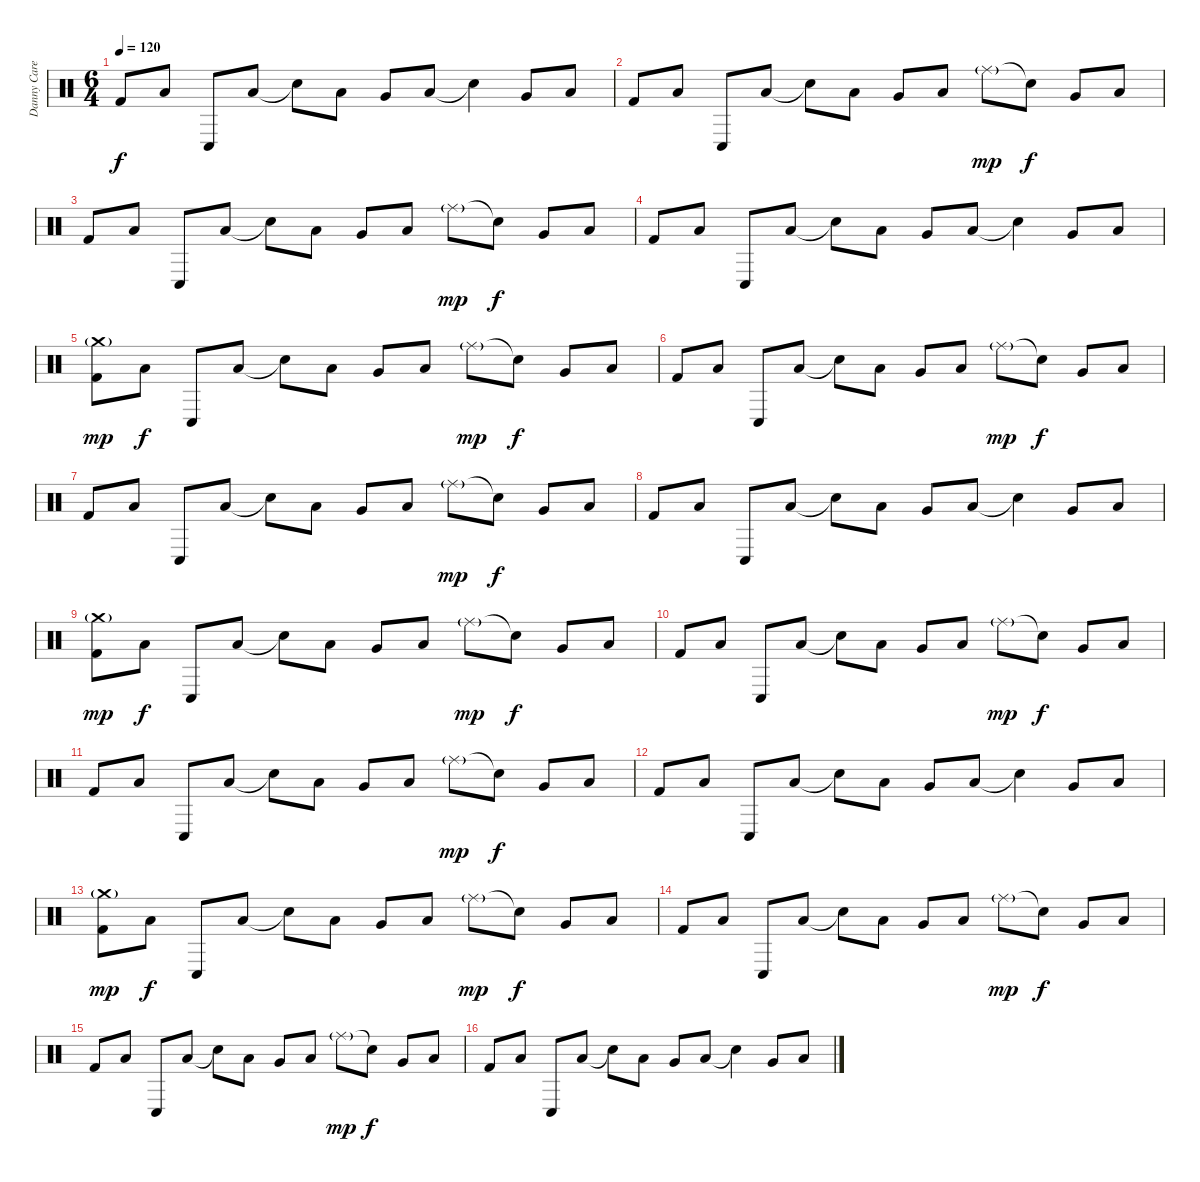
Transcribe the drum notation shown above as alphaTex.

\track ("Danny Carey" "Danny Care") {instrument percussion}
\staff {score}
\articulation defaults
\ts (6 4)
\tempo 120
\clef neutral
\ks c "Kick (hit) 2".8{dy f} "Low Tom (hit)".8 "Conga low (hit)".8 "Low Tom (hit)".8 "Snare (hit)"{t}.8 "Low Tom (hit)".8 "Very Low Tom (hit)".8 "Low Tom (hit)".8 "Snare (hit)"{t}.4 "Very Low Tom (hit)".8 "Low Floor Tom (hit)".8
|
"Kick (hit) 2".8 "Low Tom (hit)".8 "Conga low (hit)".8 "Low Tom (hit)".8 "Snare (hit)"{t}.8 "Low Tom (hit)".8 "Very Low Tom (hit)".8 "Low Tom (hit)".8 "Ride (middle)"{g}.8{dy mp} "Snare (hit)"{t}.8{dy f} "Very Low Tom (hit)".8 "Low Floor Tom (hit)".8 |
"Kick (hit) 2".8 "Low Tom (hit)".8 "Conga low (hit)".8 "Low Tom (hit)".8 "Snare (hit)"{t}.8 "Low Tom (hit)".8 "Very Low Tom (hit)".8 "Low Tom (hit)".8 "Ride (middle)"{g}.8{dy mp} "Snare (hit)"{t}.8{dy f} "Very Low Tom (hit)".8 "Low Floor Tom (hit)".8 |
"Kick (hit) 2".8 "Low Tom (hit)".8 "Conga low (hit)".8 "Low Tom (hit)".8 "Snare (hit)"{t}.8 "Low Tom (hit)".8 "Very Low Tom (hit)".8 "Low Tom (hit)".8 "Snare (hit)"{t}.4 "Very Low Tom (hit)".8 "Low Floor Tom (hit)".8 |
("Crash medium (hit)"{g} "Kick (hit) 2").8{dy mp} "Low Tom (hit)".8{dy f} "Conga low (hit)".8 "Low Tom (hit)".8 "Snare (hit)"{t}.8 "Low Tom (hit)".8 "Very Low Tom (hit)".8 "Low Tom (hit)".8 "Ride (middle)"{g}.8{dy mp} "Snare (hit)"{t}.8{dy f} "Very Low Tom (hit)".8 "Low Floor Tom (hit)".8 |
"Kick (hit) 2".8 "Low Tom (hit)".8 "Conga low (hit)".8 "Low Tom (hit)".8 "Snare (hit)"{t}.8 "Low Tom (hit)".8 "Very Low Tom (hit)".8 "Low Tom (hit)".8 "Ride (middle)"{g}.8{dy mp} "Snare (hit)"{t}.8{dy f} "Very Low Tom (hit)".8 "Low Floor Tom (hit)".8 |
"Kick (hit) 2".8 "Low Tom (hit)".8 "Conga low (hit)".8 "Low Tom (hit)".8 "Snare (hit)"{t}.8 "Low Tom (hit)".8 "Very Low Tom (hit)".8 "Low Tom (hit)".8 "Ride (middle)"{g}.8{dy mp} "Snare (hit)"{t}.8{dy f} "Very Low Tom (hit)".8 "Low Floor Tom (hit)".8 |
"Kick (hit) 2".8 "Low Tom (hit)".8 "Conga low (hit)".8 "Low Tom (hit)".8 "Snare (hit)"{t}.8 "Low Tom (hit)".8 "Very Low Tom (hit)".8 "Low Tom (hit)".8 "Snare (hit)"{t}.4 "Very Low Tom (hit)".8 "Low Floor Tom (hit)".8 |
("Crash medium (hit)"{g} "Kick (hit) 2").8{dy mp} "Low Tom (hit)".8{dy f} "Conga low (hit)".8 "Low Tom (hit)".8 "Snare (hit)"{t}.8 "Low Tom (hit)".8 "Very Low Tom (hit)".8 "Low Tom (hit)".8 "Ride (middle)"{g}.8{dy mp} "Snare (hit)"{t}.8{dy f} "Very Low Tom (hit)".8 "Low Floor Tom (hit)".8 |
"Kick (hit) 2".8 "Low Tom (hit)".8 "Conga low (hit)".8 "Low Tom (hit)".8 "Snare (hit)"{t}.8 "Low Tom (hit)".8 "Very Low Tom (hit)".8 "Low Tom (hit)".8 "Ride (middle)"{g}.8{dy mp} "Snare (hit)"{t}.8{dy f} "Very Low Tom (hit)".8 "Low Floor Tom (hit)".8 |
"Kick (hit) 2".8 "Low Tom (hit)".8 "Conga low (hit)".8 "Low Tom (hit)".8 "Snare (hit)"{t}.8 "Low Tom (hit)".8 "Very Low Tom (hit)".8 "Low Tom (hit)".8 "Ride (middle)"{g}.8{dy mp} "Snare (hit)"{t}.8{dy f} "Very Low Tom (hit)".8 "Low Floor Tom (hit)".8 |
"Kick (hit) 2".8 "Low Tom (hit)".8 "Conga low (hit)".8 "Low Tom (hit)".8 "Snare (hit)"{t}.8 "Low Tom (hit)".8 "Very Low Tom (hit)".8 "Low Tom (hit)".8 "Snare (hit)"{t}.4 "Very Low Tom (hit)".8 "Low Floor Tom (hit)".8 |
("Crash medium (hit)"{g} "Kick (hit) 2").8{dy mp} "Low Tom (hit)".8{dy f} "Conga low (hit)".8 "Low Tom (hit)".8 "Snare (hit)"{t}.8 "Low Tom (hit)".8 "Very Low Tom (hit)".8 "Low Tom (hit)".8 "Ride (middle)"{g}.8{dy mp} "Snare (hit)"{t}.8{dy f} "Very Low Tom (hit)".8 "Low Floor Tom (hit)".8 |
"Kick (hit) 2".8 "Low Tom (hit)".8 "Conga low (hit)".8 "Low Tom (hit)".8 "Snare (hit)"{t}.8 "Low Tom (hit)".8 "Very Low Tom (hit)".8 "Low Tom (hit)".8 "Ride (middle)"{g}.8{dy mp} "Snare (hit)"{t}.8{dy f} "Very Low Tom (hit)".8 "Low Floor Tom (hit)".8 |
"Kick (hit) 2".8 "Low Tom (hit)".8 "Conga low (hit)".8 "Low Tom (hit)".8 "Snare (hit)"{t}.8 "Low Tom (hit)".8 "Very Low Tom (hit)".8 "Low Tom (hit)".8 "Ride (middle)"{g}.8{dy mp} "Snare (hit)"{t}.8{dy f} "Very Low Tom (hit)".8 "Low Floor Tom (hit)".8 |
"Kick (hit) 2".8 "Low Tom (hit)".8 "Conga low (hit)".8 "Low Tom (hit)".8 "Snare (hit)"{t}.8 "Low Tom (hit)".8 "Very Low Tom (hit)".8 "Low Tom (hit)".8 "Snare (hit)"{t}.4 "Very Low Tom (hit)".8 "Low Floor Tom (hit)".8
